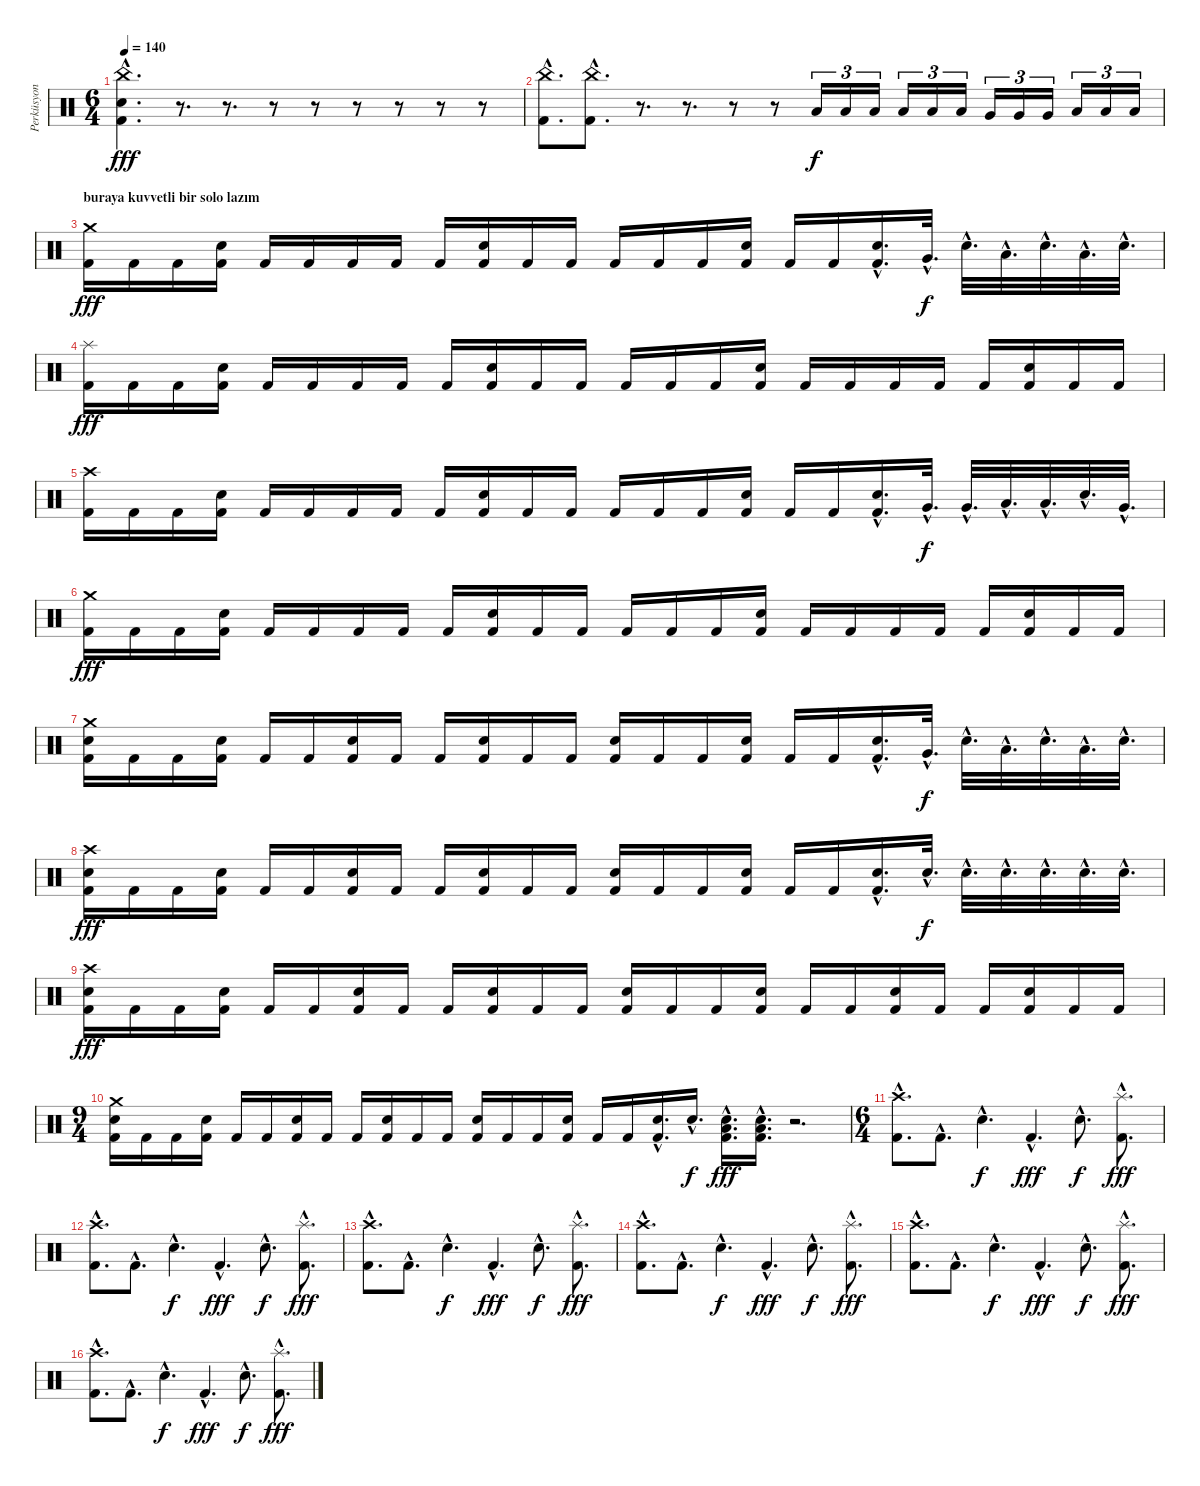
\track ("Perküsyon" "Perküsyon") {instrument percussion}
\staff {score}
\articulation defaults
\ts (6 4)
\tempo 140
\clef neutral
\ks c
("China (hit)"{hac} "Electric Snare (hit)"{hac} "Kick (hit) 2"{hac}).4{d dy fff} r.8{d} r.8{d} r.8 r.8 r.8 r.8 r.8 r.8 |
("China (hit)"{hac} "Kick (hit) 2"{hac}).8{d} ("China (hit)"{hac} "Kick (hit) 2"{hac}).8{d} r.8{d} r.8{d} r.8 r.8 "Low Tom (hit)".16{tu (3 2) dy f} "Low Tom (hit)".16{tu (3 2)} "Low Tom (hit)".16{tu (3 2)} "Low Tom (hit)".16{tu (3 2)} "Low Tom (hit)".16{tu (3 2)} "Low Tom (hit)".16{tu (3 2)} "Very Low Tom (hit)".16{tu (3 2)} "Very Low Tom (hit)".16{tu (3 2)} "Very Low Tom (hit)".16{tu (3 2)} "Low Floor Tom (hit)".16{tu (3 2)} "Low Floor Tom (hit)".16{tu (3 2)} "Low Floor Tom (hit)".16{tu (3 2)} |
\section ("" "buraya kuvvetli bir solo lazım")
("Crash medium (hit)" "Kick (hit) 2").16{dy fff} "Kick (hit) 2".16 "Kick (hit) 2".16 ("Electric Snare (hit)" "Kick (hit) 2").16 "Kick (hit) 2".16 "Kick (hit) 2".16 "Kick (hit) 2".16 "Kick (hit) 2".16 "Kick (hit) 2".16 ("Electric Snare (hit)" "Kick (hit) 2").16 "Kick (hit) 2".16 "Kick (hit) 2".16 "Kick (hit) 2".16 "Kick (hit) 2".16 "Kick (hit) 2".16 ("Electric Snare (hit)" "Kick (hit) 2").16 "Kick (hit) 2".16 "Kick (hit) 2".16 ("Electric Snare (hit)"{hac} "Kick (hit) 2"{hac}).16{d} "Very Low Tom (hit)"{hac}.32{d dy f} "Electric Snare (hit)"{hac}.32{d} "Low Floor Tom (hit)"{hac}.32{d} "Electric Snare (hit)"{hac}.32{d} "Low Tom (hit)"{hac}.32{d} "Electric Snare (hit)"{hac}.32{d} |
("Splash (hit)" "Kick (hit) 2").16{dy fff} "Kick (hit) 2".16 "Kick (hit) 2".16 ("Electric Snare (hit)" "Kick (hit) 2").16 "Kick (hit) 2".16 "Kick (hit) 2".16 "Kick (hit) 2".16 "Kick (hit) 2".16 "Kick (hit) 2".16 ("Electric Snare (hit)" "Kick (hit) 2").16 "Kick (hit) 2".16 "Kick (hit) 2".16 "Kick (hit) 2".16 "Kick (hit) 2".16 "Kick (hit) 2".16 ("Electric Snare (hit)" "Kick (hit) 2").16 "Kick (hit) 2".16 "Kick (hit) 2".16 "Kick (hit) 2".16 "Kick (hit) 2".16 "Kick (hit) 2".16 ("Electric Snare (hit)" "Kick (hit) 2").16 "Kick (hit) 2".16 "Kick (hit) 2".16 |
("Crash high (hit)" "Kick (hit) 2").16 "Kick (hit) 2".16 "Kick (hit) 2".16 ("Electric Snare (hit)" "Kick (hit) 2").16 "Kick (hit) 2".16 "Kick (hit) 2".16 "Kick (hit) 2".16 "Kick (hit) 2".16 "Kick (hit) 2".16 ("Electric Snare (hit)" "Kick (hit) 2").16 "Kick (hit) 2".16 "Kick (hit) 2".16 "Kick (hit) 2".16 "Kick (hit) 2".16 "Kick (hit) 2".16 ("Electric Snare (hit)" "Kick (hit) 2").16 "Kick (hit) 2".16 "Kick (hit) 2".16 ("Electric Snare (hit)"{hac} "Kick (hit) 2"{hac}).16{d} "Very Low Tom (hit)"{hac}.32{d dy f} "Very Low Tom (hit)"{hac}.32{d} "Low Floor Tom (hit)"{hac}.32{d} "Low Floor Tom (hit)"{hac}.32{d} "Electric Snare (hit)"{hac}.32{d} "Very Low Tom (hit)"{hac}.32{d} |
("Crash medium (hit)" "Kick (hit) 2").16{dy fff} "Kick (hit) 2".16 "Kick (hit) 2".16 ("Electric Snare (hit)" "Kick (hit) 2").16 "Kick (hit) 2".16 "Kick (hit) 2".16 "Kick (hit) 2".16 "Kick (hit) 2".16 "Kick (hit) 2".16 ("Electric Snare (hit)" "Kick (hit) 2").16 "Kick (hit) 2".16 "Kick (hit) 2".16 "Kick (hit) 2".16 "Kick (hit) 2".16 "Kick (hit) 2".16 ("Electric Snare (hit)" "Kick (hit) 2").16 "Kick (hit) 2".16 "Kick (hit) 2".16 "Kick (hit) 2".16 "Kick (hit) 2".16 "Kick (hit) 2".16 ("Electric Snare (hit)" "Kick (hit) 2").16 "Kick (hit) 2".16 "Kick (hit) 2".16 |
("Crash medium (hit)" "Electric Snare (hit)" "Kick (hit) 2").16 "Kick (hit) 2".16 "Kick (hit) 2".16 ("Electric Snare (hit)" "Kick (hit) 2").16 "Kick (hit) 2".16 "Kick (hit) 2".16 ("Electric Snare (hit)" "Kick (hit) 2").16 "Kick (hit) 2".16 "Kick (hit) 2".16 ("Electric Snare (hit)" "Kick (hit) 2").16 "Kick (hit) 2".16 "Kick (hit) 2".16 ("Electric Snare (hit)" "Kick (hit) 2").16 "Kick (hit) 2".16 "Kick (hit) 2".16 ("Electric Snare (hit)" "Kick (hit) 2").16 "Kick (hit) 2".16 "Kick (hit) 2".16 ("Electric Snare (hit)"{hac} "Kick (hit) 2"{hac}).16{d} "Very Low Tom (hit)"{hac}.32{d dy f} "Electric Snare (hit)"{hac}.32{d} "Low Floor Tom (hit)"{hac}.32{d} "Electric Snare (hit)"{hac}.32{d} "Low Tom (hit)"{hac}.32{d} "Electric Snare (hit)"{hac}.32{d} |
("Crash high (hit)" "Electric Snare (hit)" "Kick (hit) 2").16{dy fff} "Kick (hit) 2".16 "Kick (hit) 2".16 ("Electric Snare (hit)" "Kick (hit) 2").16 "Kick (hit) 2".16 "Kick (hit) 2".16 ("Electric Snare (hit)" "Kick (hit) 2").16 "Kick (hit) 2".16 "Kick (hit) 2".16 ("Electric Snare (hit)" "Kick (hit) 2").16 "Kick (hit) 2".16 "Kick (hit) 2".16 ("Electric Snare (hit)" "Kick (hit) 2").16 "Kick (hit) 2".16 "Kick (hit) 2".16 ("Electric Snare (hit)" "Kick (hit) 2").16 "Kick (hit) 2".16 "Kick (hit) 2".16 ("Electric Snare (hit)"{hac} "Kick (hit) 2"{hac}).16{d} "Electric Snare (hit)"{hac}.32{d dy f} "Electric Snare (hit)"{hac}.32{d} "Electric Snare (hit)"{hac}.32{d} "Electric Snare (hit)"{hac}.32{d} "Electric Snare (hit)"{hac}.32{d} "Electric Snare (hit)"{hac}.32{d} |
("Crash high (hit)" "Electric Snare (hit)" "Kick (hit) 2").16{dy fff} "Kick (hit) 2".16 "Kick (hit) 2".16 ("Electric Snare (hit)" "Kick (hit) 2").16 "Kick (hit) 2".16 "Kick (hit) 2".16 ("Electric Snare (hit)" "Kick (hit) 2").16 "Kick (hit) 2".16 "Kick (hit) 2".16 ("Electric Snare (hit)" "Kick (hit) 2").16 "Kick (hit) 2".16 "Kick (hit) 2".16 ("Electric Snare (hit)" "Kick (hit) 2").16 "Kick (hit) 2".16 "Kick (hit) 2".16 ("Electric Snare (hit)" "Kick (hit) 2").16 "Kick (hit) 2".16 "Kick (hit) 2".16 ("Electric Snare (hit)" "Kick (hit) 2").16 "Kick (hit) 2".16 "Kick (hit) 2".16 ("Electric Snare (hit)" "Kick (hit) 2").16 "Kick (hit) 2".16 "Kick (hit) 2".16 |
\ts (9 4)
("Crash medium (hit)" "Electric Snare (hit)" "Kick (hit) 2").16 "Kick (hit) 2".16 "Kick (hit) 2".16 ("Electric Snare (hit)" "Kick (hit) 2").16 "Kick (hit) 2".16 "Kick (hit) 2".16 ("Electric Snare (hit)" "Kick (hit) 2").16 "Kick (hit) 2".16 "Kick (hit) 2".16 ("Electric Snare (hit)" "Kick (hit) 2").16 "Kick (hit) 2".16 "Kick (hit) 2".16 ("Electric Snare (hit)" "Kick (hit) 2").16 "Kick (hit) 2".16 "Kick (hit) 2".16 ("Electric Snare (hit)" "Kick (hit) 2").16 "Kick (hit) 2".16 "Kick (hit) 2".16 ("Electric Snare (hit)"{hac} "Kick (hit) 2"{hac}).16{d} "Electric Snare (hit)"{hac}.16{d dy f} ("Electric Snare (hit)"{hac} "Low Floor Tom (hit)"{hac} "Kick (hit) 2"{hac}).16{d dy fff} ("Electric Snare (hit)"{hac} "Low Floor Tom (hit)"{hac} "Kick (hit) 2"{hac}).16{d} r.2{d} |
\ts (6 4)
("Crash high (hit)"{hac} "Kick (hit) 2"{hac}).8{d} "Kick (hit) 2"{hac}.8{d} "Snare (hit) 2"{hac}.4{d dy f} "Kick (hit) 2"{hac}.4{d dy fff} "Snare (hit) 2"{hac}.8{d dy f} ("Splash (hit)"{hac} "Kick (hit) 2"{hac}).8{d dy fff} |
("Crash high (hit)"{hac} "Kick (hit) 2"{hac}).8{d} "Kick (hit) 2"{hac}.8{d} "Snare (hit) 2"{hac}.4{d dy f} "Kick (hit) 2"{hac}.4{d dy fff} "Snare (hit) 2"{hac}.8{d dy f} ("Splash (hit)"{hac} "Kick (hit) 2"{hac}).8{d dy fff} |
("Crash high (hit)"{hac} "Kick (hit) 2"{hac}).8{d} "Kick (hit) 2"{hac}.8{d} "Snare (hit) 2"{hac}.4{d dy f} "Kick (hit) 2"{hac}.4{d dy fff} "Snare (hit) 2"{hac}.8{d dy f} ("Splash (hit)"{hac} "Kick (hit) 2"{hac}).8{d dy fff} |
("Crash high (hit)"{hac} "Kick (hit) 2"{hac}).8{d} "Kick (hit) 2"{hac}.8{d} "Snare (hit) 2"{hac}.4{d dy f} "Kick (hit) 2"{hac}.4{d dy fff} "Snare (hit) 2"{hac}.8{d dy f} ("Splash (hit)"{hac} "Kick (hit) 2"{hac}).8{d dy fff} |
("Crash high (hit)"{hac} "Kick (hit) 2"{hac}).8{d} "Kick (hit) 2"{hac}.8{d} "Snare (hit) 2"{hac}.4{d dy f} "Kick (hit) 2"{hac}.4{d dy fff} "Snare (hit) 2"{hac}.8{d dy f} ("Splash (hit)"{hac} "Kick (hit) 2"{hac}).8{d dy fff} |
("Crash high (hit)"{hac} "Kick (hit) 2"{hac}).8{d} "Kick (hit) 2"{hac}.8{d} "Snare (hit) 2"{hac}.4{d dy f} "Kick (hit) 2"{hac}.4{d dy fff} "Snare (hit) 2"{hac}.8{d dy f} ("Splash (hit)"{hac} "Kick (hit) 2"{hac}).8{d dy fff}
